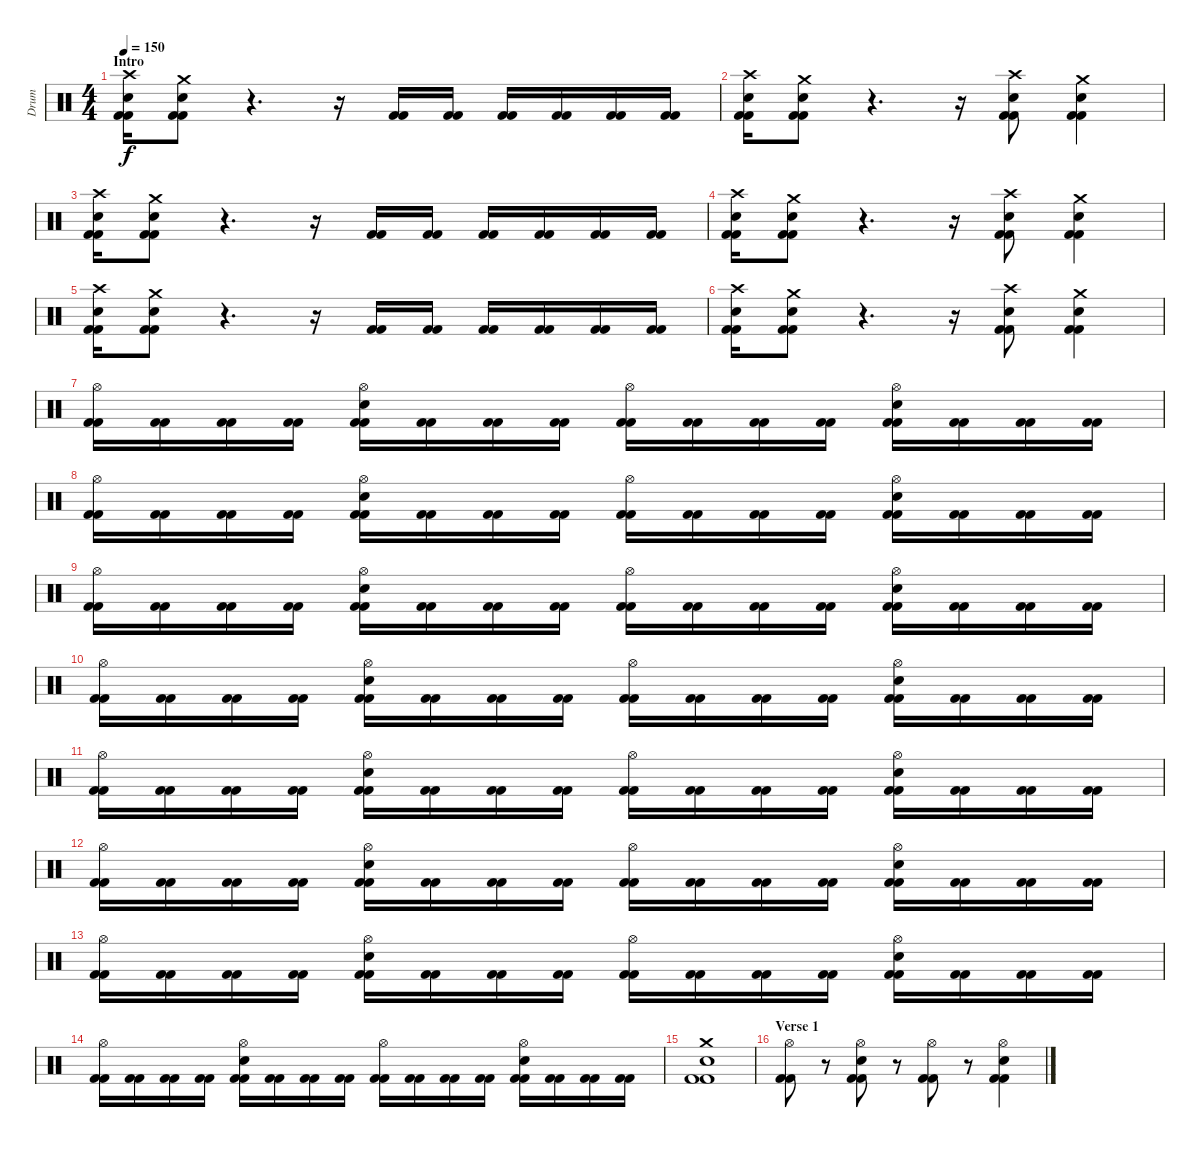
\track ("Drum" "Drum") {instrument percussion}
\staff {score}
\articulation defaults
\ts (4 4)
\section ("" "Intro")
\tempo 150
\clef neutral
\ks c
("Crash high (hit)" "Snare (hit) 2" "Kick (hit) 2" "Kick (hit) 2").16{dy f} ("Crash medium (hit)" "Snare (hit) 2" "Kick (hit) 2" "Kick (hit) 2").8 r.4{d} r.16 ("Kick (hit) 2" "Kick (hit) 2").16 ("Kick (hit) 2" "Kick (hit) 2").16 ("Kick (hit) 2" "Kick (hit) 2").16 ("Kick (hit) 2" "Kick (hit) 2").16 ("Kick (hit) 2" "Kick (hit) 2").16 ("Kick (hit) 2" "Kick (hit) 2").16 |
("Crash high (hit)" "Snare (hit) 2" "Kick (hit) 2" "Kick (hit) 2").16 ("Crash medium (hit)" "Snare (hit) 2" "Kick (hit) 2" "Kick (hit) 2").8 r.4{d} r.16 ("Crash high (hit)" "Snare (hit) 2" "Kick (hit) 2" "Kick (hit) 2").8 ("Crash medium (hit)" "Snare (hit) 2" "Kick (hit) 2" "Kick (hit) 2").4 |
("Crash high (hit)" "Snare (hit) 2" "Kick (hit) 2" "Kick (hit) 2").16 ("Crash medium (hit)" "Snare (hit) 2" "Kick (hit) 2" "Kick (hit) 2").8 r.4{d} r.16 ("Kick (hit) 2" "Kick (hit) 2").16 ("Kick (hit) 2" "Kick (hit) 2").16 ("Kick (hit) 2" "Kick (hit) 2").16 ("Kick (hit) 2" "Kick (hit) 2").16 ("Kick (hit) 2" "Kick (hit) 2").16 ("Kick (hit) 2" "Kick (hit) 2").16 |
("Crash high (hit)" "Snare (hit) 2" "Kick (hit) 2" "Kick (hit) 2").16 ("Crash medium (hit)" "Snare (hit) 2" "Kick (hit) 2" "Kick (hit) 2").8 r.4{d} r.16 ("Crash high (hit)" "Snare (hit) 2" "Kick (hit) 2" "Kick (hit) 2").8 ("Crash medium (hit)" "Snare (hit) 2" "Kick (hit) 2" "Kick (hit) 2").4 |
("Crash high (hit)" "Snare (hit) 2" "Kick (hit) 2" "Kick (hit) 2").16 ("Crash medium (hit)" "Snare (hit) 2" "Kick (hit) 2" "Kick (hit) 2").8 r.4{d} r.16 ("Kick (hit) 2" "Kick (hit) 2").16 ("Kick (hit) 2" "Kick (hit) 2").16 ("Kick (hit) 2" "Kick (hit) 2").16 ("Kick (hit) 2" "Kick (hit) 2").16 ("Kick (hit) 2" "Kick (hit) 2").16 ("Kick (hit) 2" "Kick (hit) 2").16 |
("Crash high (hit)" "Snare (hit) 2" "Kick (hit) 2" "Kick (hit) 2").16 ("Crash medium (hit)" "Snare (hit) 2" "Kick (hit) 2" "Kick (hit) 2").8 r.4{d} r.16 ("Crash high (hit)" "Snare (hit) 2" "Kick (hit) 2" "Kick (hit) 2").8 ("Crash medium (hit)" "Snare (hit) 2" "Kick (hit) 2" "Kick (hit) 2").4 |
("Hi-Hat (open)" "Kick (hit) 2" "Kick (hit) 2").16 ("Kick (hit) 2" "Kick (hit) 2").16 ("Kick (hit) 2" "Kick (hit) 2").16 ("Kick (hit) 2" "Kick (hit) 2").16 ("Snare (hit) 2" "Hi-Hat (open)" "Kick (hit) 2" "Kick (hit) 2").16 ("Kick (hit) 2" "Kick (hit) 2").16 ("Kick (hit) 2" "Kick (hit) 2").16 ("Kick (hit) 2" "Kick (hit) 2").16 ("Hi-Hat (open)" "Kick (hit) 2" "Kick (hit) 2").16 ("Kick (hit) 2" "Kick (hit) 2").16 ("Kick (hit) 2" "Kick (hit) 2").16 ("Kick (hit) 2" "Kick (hit) 2").16 ("Snare (hit) 2" "Hi-Hat (open)" "Kick (hit) 2" "Kick (hit) 2").16 ("Kick (hit) 2" "Kick (hit) 2").16 ("Kick (hit) 2" "Kick (hit) 2").16 ("Kick (hit) 2" "Kick (hit) 2").16 |
("Hi-Hat (open)" "Kick (hit) 2" "Kick (hit) 2").16 ("Kick (hit) 2" "Kick (hit) 2").16 ("Kick (hit) 2" "Kick (hit) 2").16 ("Kick (hit) 2" "Kick (hit) 2").16 ("Snare (hit) 2" "Hi-Hat (open)" "Kick (hit) 2" "Kick (hit) 2").16 ("Kick (hit) 2" "Kick (hit) 2").16 ("Kick (hit) 2" "Kick (hit) 2").16 ("Kick (hit) 2" "Kick (hit) 2").16 ("Hi-Hat (open)" "Kick (hit) 2" "Kick (hit) 2").16 ("Kick (hit) 2" "Kick (hit) 2").16 ("Kick (hit) 2" "Kick (hit) 2").16 ("Kick (hit) 2" "Kick (hit) 2").16 ("Snare (hit) 2" "Hi-Hat (open)" "Kick (hit) 2" "Kick (hit) 2").16 ("Kick (hit) 2" "Kick (hit) 2").16 ("Kick (hit) 2" "Kick (hit) 2").16 ("Kick (hit) 2" "Kick (hit) 2").16 |
("Hi-Hat (open)" "Kick (hit) 2" "Kick (hit) 2").16 ("Kick (hit) 2" "Kick (hit) 2").16 ("Kick (hit) 2" "Kick (hit) 2").16 ("Kick (hit) 2" "Kick (hit) 2").16 ("Snare (hit) 2" "Hi-Hat (open)" "Kick (hit) 2" "Kick (hit) 2").16 ("Kick (hit) 2" "Kick (hit) 2").16 ("Kick (hit) 2" "Kick (hit) 2").16 ("Kick (hit) 2" "Kick (hit) 2").16 ("Hi-Hat (open)" "Kick (hit) 2" "Kick (hit) 2").16 ("Kick (hit) 2" "Kick (hit) 2").16 ("Kick (hit) 2" "Kick (hit) 2").16 ("Kick (hit) 2" "Kick (hit) 2").16 ("Snare (hit) 2" "Hi-Hat (open)" "Kick (hit) 2" "Kick (hit) 2").16 ("Kick (hit) 2" "Kick (hit) 2").16 ("Kick (hit) 2" "Kick (hit) 2").16 ("Kick (hit) 2" "Kick (hit) 2").16 |
("Hi-Hat (open)" "Kick (hit) 2" "Kick (hit) 2").16 ("Kick (hit) 2" "Kick (hit) 2").16 ("Kick (hit) 2" "Kick (hit) 2").16 ("Kick (hit) 2" "Kick (hit) 2").16 ("Snare (hit) 2" "Hi-Hat (open)" "Kick (hit) 2" "Kick (hit) 2").16 ("Kick (hit) 2" "Kick (hit) 2").16 ("Kick (hit) 2" "Kick (hit) 2").16 ("Kick (hit) 2" "Kick (hit) 2").16 ("Hi-Hat (open)" "Kick (hit) 2" "Kick (hit) 2").16 ("Kick (hit) 2" "Kick (hit) 2").16 ("Kick (hit) 2" "Kick (hit) 2").16 ("Kick (hit) 2" "Kick (hit) 2").16 ("Snare (hit) 2" "Hi-Hat (open)" "Kick (hit) 2" "Kick (hit) 2").16 ("Kick (hit) 2" "Kick (hit) 2").16 ("Kick (hit) 2" "Kick (hit) 2").16 ("Kick (hit) 2" "Kick (hit) 2").16 |
("Hi-Hat (open)" "Kick (hit) 2" "Kick (hit) 2").16 ("Kick (hit) 2" "Kick (hit) 2").16 ("Kick (hit) 2" "Kick (hit) 2").16 ("Kick (hit) 2" "Kick (hit) 2").16 ("Snare (hit) 2" "Hi-Hat (open)" "Kick (hit) 2" "Kick (hit) 2").16 ("Kick (hit) 2" "Kick (hit) 2").16 ("Kick (hit) 2" "Kick (hit) 2").16 ("Kick (hit) 2" "Kick (hit) 2").16 ("Hi-Hat (open)" "Kick (hit) 2" "Kick (hit) 2").16 ("Kick (hit) 2" "Kick (hit) 2").16 ("Kick (hit) 2" "Kick (hit) 2").16 ("Kick (hit) 2" "Kick (hit) 2").16 ("Snare (hit) 2" "Hi-Hat (open)" "Kick (hit) 2" "Kick (hit) 2").16 ("Kick (hit) 2" "Kick (hit) 2").16 ("Kick (hit) 2" "Kick (hit) 2").16 ("Kick (hit) 2" "Kick (hit) 2").16 |
("Hi-Hat (open)" "Kick (hit) 2" "Kick (hit) 2").16 ("Kick (hit) 2" "Kick (hit) 2").16 ("Kick (hit) 2" "Kick (hit) 2").16 ("Kick (hit) 2" "Kick (hit) 2").16 ("Snare (hit) 2" "Hi-Hat (open)" "Kick (hit) 2" "Kick (hit) 2").16 ("Kick (hit) 2" "Kick (hit) 2").16 ("Kick (hit) 2" "Kick (hit) 2").16 ("Kick (hit) 2" "Kick (hit) 2").16 ("Hi-Hat (open)" "Kick (hit) 2" "Kick (hit) 2").16 ("Kick (hit) 2" "Kick (hit) 2").16 ("Kick (hit) 2" "Kick (hit) 2").16 ("Kick (hit) 2" "Kick (hit) 2").16 ("Snare (hit) 2" "Hi-Hat (open)" "Kick (hit) 2" "Kick (hit) 2").16 ("Kick (hit) 2" "Kick (hit) 2").16 ("Kick (hit) 2" "Kick (hit) 2").16 ("Kick (hit) 2" "Kick (hit) 2").16 |
("Hi-Hat (open)" "Kick (hit) 2" "Kick (hit) 2").16 ("Kick (hit) 2" "Kick (hit) 2").16 ("Kick (hit) 2" "Kick (hit) 2").16 ("Kick (hit) 2" "Kick (hit) 2").16 ("Snare (hit) 2" "Hi-Hat (open)" "Kick (hit) 2" "Kick (hit) 2").16 ("Kick (hit) 2" "Kick (hit) 2").16 ("Kick (hit) 2" "Kick (hit) 2").16 ("Kick (hit) 2" "Kick (hit) 2").16 ("Hi-Hat (open)" "Kick (hit) 2" "Kick (hit) 2").16 ("Kick (hit) 2" "Kick (hit) 2").16 ("Kick (hit) 2" "Kick (hit) 2").16 ("Kick (hit) 2" "Kick (hit) 2").16 ("Snare (hit) 2" "Hi-Hat (open)" "Kick (hit) 2" "Kick (hit) 2").16 ("Kick (hit) 2" "Kick (hit) 2").16 ("Kick (hit) 2" "Kick (hit) 2").16 ("Kick (hit) 2" "Kick (hit) 2").16 |
("Hi-Hat (open)" "Kick (hit) 2" "Kick (hit) 2").16 ("Kick (hit) 2" "Kick (hit) 2").16 ("Kick (hit) 2" "Kick (hit) 2").16 ("Kick (hit) 2" "Kick (hit) 2").16 ("Snare (hit) 2" "Hi-Hat (open)" "Kick (hit) 2" "Kick (hit) 2").16 ("Kick (hit) 2" "Kick (hit) 2").16 ("Kick (hit) 2" "Kick (hit) 2").16 ("Kick (hit) 2" "Kick (hit) 2").16 ("Hi-Hat (open)" "Kick (hit) 2" "Kick (hit) 2").16 ("Kick (hit) 2" "Kick (hit) 2").16 ("Kick (hit) 2" "Kick (hit) 2").16 ("Kick (hit) 2" "Kick (hit) 2").16 ("Snare (hit) 2" "Hi-Hat (open)" "Kick (hit) 2" "Kick (hit) 2").16 ("Kick (hit) 2" "Kick (hit) 2").16 ("Kick (hit) 2" "Kick (hit) 2").16 ("Kick (hit) 2" "Kick (hit) 2").16 |
("Snare (hit) 2" "Crash medium (hit)" "Kick (hit) 2" "Kick (hit) 2").1 |
\section ("" "Verse 1")
("Hi-Hat (open)" "Kick (hit) 2" "Kick (hit) 2").8 r.8 ("Snare (hit) 2" "Hi-Hat (open)" "Kick (hit) 2" "Kick (hit) 2").8 r.8 ("Hi-Hat (open)" "Kick (hit) 2" "Kick (hit) 2").8 r.8 ("Snare (hit) 2" "Hi-Hat (open)" "Kick (hit) 2" "Kick (hit) 2").4
